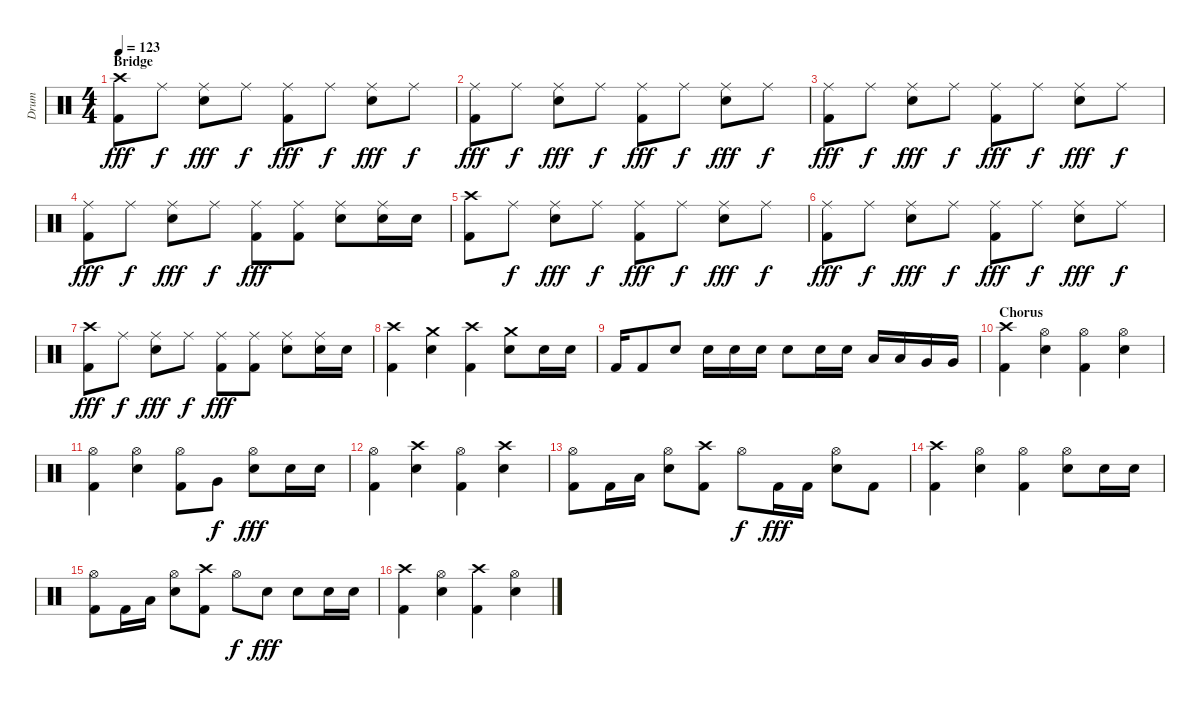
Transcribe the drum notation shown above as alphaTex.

\track ("Drum" "Drum") {instrument percussion}
\staff {score}
\articulation defaults
\ts (4 4)
\section ("" "Bridge")
\tempo 123
\clef neutral
\ks c
("Crash high (hit)" "Kick (hit) 2").8{dy fff} "Ride (middle)".8{dy f} ("Ride (middle)" "Electric Snare (hit)").8{dy fff} "Ride (middle)".8{dy f} ("Ride (middle)" "Kick (hit) 2").8{dy fff} "Ride (middle)".8{dy f} ("Ride (middle)" "Electric Snare (hit)").8{dy fff} "Ride (middle)".8{dy f} |
("Ride (middle)" "Kick (hit) 2").8{dy fff} "Ride (middle)".8{dy f} ("Ride (middle)" "Electric Snare (hit)").8{dy fff} "Ride (middle)".8{dy f} ("Ride (middle)" "Kick (hit) 2").8{dy fff} "Ride (middle)".8{dy f} ("Ride (middle)" "Electric Snare (hit)").8{dy fff} "Ride (middle)".8{dy f} |
("Ride (middle)" "Kick (hit) 2").8{dy fff} "Ride (middle)".8{dy f} ("Ride (middle)" "Electric Snare (hit)").8{dy fff} "Ride (middle)".8{dy f} ("Ride (middle)" "Kick (hit) 2").8{dy fff} "Ride (middle)".8{dy f} ("Ride (middle)" "Electric Snare (hit)").8{dy fff} "Ride (middle)".8{dy f} |
("Ride (middle)" "Kick (hit) 2").8{dy fff} "Ride (middle)".8{dy f} ("Ride (middle)" "Electric Snare (hit)").8{dy fff} "Ride (middle)".8{dy f} ("Ride (middle)" "Kick (hit) 2").8{dy fff} ("Ride (middle)" "Kick (hit) 2").8 ("Ride (middle)" "Electric Snare (hit)").8 ("Ride (middle)" "Electric Snare (hit)").16 "Electric Snare (hit)".16 |
("Crash high (hit)" "Kick (hit) 2").8 "Ride (middle)".8{dy f} ("Ride (middle)" "Electric Snare (hit)").8{dy fff} "Ride (middle)".8{dy f} ("Ride (middle)" "Kick (hit) 2").8{dy fff} "Ride (middle)".8{dy f} ("Ride (middle)" "Electric Snare (hit)").8{dy fff} "Ride (middle)".8{dy f} |
("Ride (middle)" "Kick (hit) 2").8{dy fff} "Ride (middle)".8{dy f} ("Ride (middle)" "Electric Snare (hit)").8{dy fff} "Ride (middle)".8{dy f} ("Ride (middle)" "Kick (hit) 2").8{dy fff} "Ride (middle)".8{dy f} ("Ride (middle)" "Electric Snare (hit)").8{dy fff} "Ride (middle)".8{dy f} |
("Crash high (hit)" "Kick (hit) 2").8{dy fff} "Ride (middle)".8{dy f} ("Ride (middle)" "Electric Snare (hit)").8{dy fff} "Ride (middle)".8{dy f} ("Ride (middle)" "Kick (hit) 2").8{dy fff} ("Ride (middle)" "Kick (hit) 2").8 ("Ride (middle)" "Electric Snare (hit)").8 ("Ride (middle)" "Electric Snare (hit)").16 "Electric Snare (hit)".16 |
("Crash high (hit)" "Kick (hit) 2").4 ("Crash medium (hit)" "Electric Snare (hit)").4 ("Crash high (hit)" "Kick (hit) 2").4 ("Crash medium (hit)" "Electric Snare (hit)").8 "Electric Snare (hit)".16 "Electric Snare (hit)".16 |
"Kick (hit) 2".16 "Kick (hit) 2".8 "Electric Snare (hit)".8 "Electric Snare (hit)".16 "Electric Snare (hit)".16 "Electric Snare (hit)".16 "Electric Snare (hit)".8 "Electric Snare (hit)".16 "Electric Snare (hit)".16 "Low Tom (hit)".16 "Low Tom (hit)".16 "Very Low Tom (hit)".16 "Very Low Tom (hit)".16 |
\section ("" "Chorus")
("Crash high (hit)" "Kick (hit) 2").4 ("Hi-Hat (open)" "Electric Snare (hit)").4 ("Hi-Hat (open)" "Kick (hit) 2").4 ("Hi-Hat (open)" "Electric Snare (hit)").4 |
("Hi-Hat (open)" "Kick (hit) 2").4 ("Hi-Hat (open)" "Electric Snare (hit)").4 ("Hi-Hat (open)" "Kick (hit) 2").8 "Very Low Tom (hit)".8{dy f} ("Hi-Hat (open)" "Electric Snare (hit)").8{dy fff} "Electric Snare (hit)".16 "Electric Snare (hit)".16 |
("Hi-Hat (open)" "Kick (hit) 2").4 ("Crash high (hit)" "Electric Snare (hit)").4 ("Hi-Hat (open)" "Kick (hit) 2").4 ("Crash high (hit)" "Electric Snare (hit)").4 |
("Hi-Hat (open)" "Kick (hit) 2").8 "Kick (hit) 2".16 "Low Tom (hit)".16 ("Hi-Hat (open)" "Electric Snare (hit)").8 ("Crash high (hit)" "Kick (hit) 2").8 "Hi-Hat (open)".8{dy f} "Kick (hit) 2".16{dy fff} "Kick (hit) 2".16 ("Hi-Hat (open)" "Electric Snare (hit)").8 "Kick (hit) 2".8 |
("Crash high (hit)" "Kick (hit) 2").4 ("Hi-Hat (open)" "Electric Snare (hit)").4 ("Hi-Hat (open)" "Kick (hit) 2").4 ("Hi-Hat (open)" "Electric Snare (hit)").8 "Electric Snare (hit)".16 "Electric Snare (hit)".16 |
("Hi-Hat (open)" "Kick (hit) 2").8 "Kick (hit) 2".16 "Low Tom (hit)".16 ("Hi-Hat (open)" "Electric Snare (hit)").8 ("Crash high (hit)" "Kick (hit) 2").8 "Hi-Hat (open)".8{dy f} "Electric Snare (hit)".8{dy fff} "Electric Snare (hit)".8 "Electric Snare (hit)".16 "Electric Snare (hit)".16 |
("Crash high (hit)" "Kick (hit) 2").4 ("Hi-Hat (open)" "Electric Snare (hit)").4 ("Crash high (hit)" "Kick (hit) 2").4 ("Hi-Hat (open)" "Electric Snare (hit)").4
